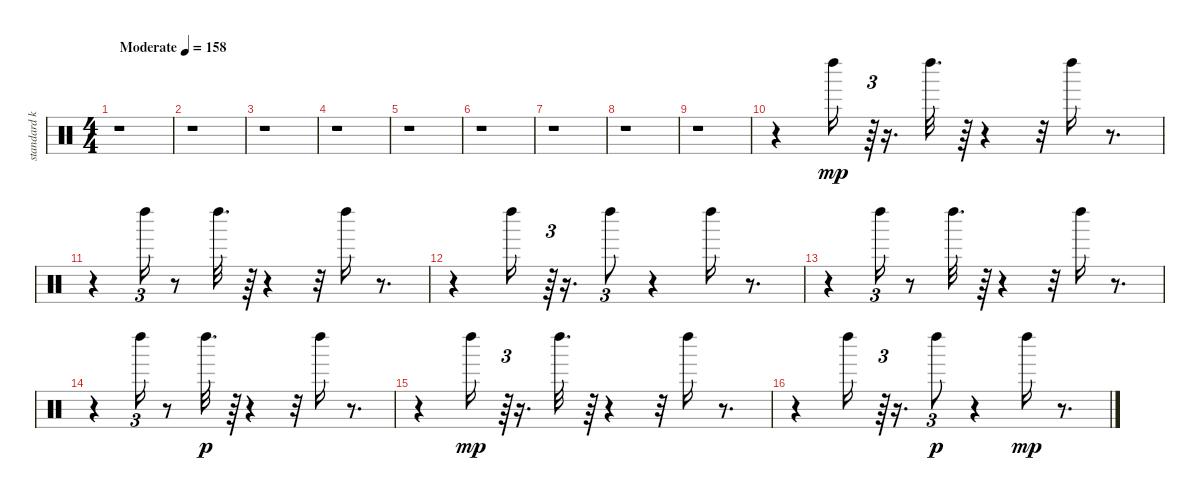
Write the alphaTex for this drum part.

\track ("standard kit" "standard k") {instrument percussion}
\staff {score}
\articulation defaults
\ts (4 4)
\tempo (158 "Moderate")
\clef neutral
\ks c
r.1{dy mp} |
r.1 |
r.1 |
r.1 |
r.1 |
r.1 |
r.1 |
r.1 |
r.1 |
r.4 "Left Maraca (hit)".16{balance 8} r.64{tu (3 2)} r.16{d} "Left Maraca (hit)".32{d} r.64 r.4 r.32 "Left Maraca (hit)".16 r.8{d} |
r.4 "Left Maraca (hit)".16{tu (3 2)} r.8 "Left Maraca (hit)".32{d} r.64 r.4 r.32 "Left Maraca (hit)".16 r.8{d} |
r.4 "Left Maraca (hit)".16 r.64{tu (3 2)} r.16{d} "Left Maraca (hit)".8{tu (3 2)} r.4 "Left Maraca (hit)".16 r.8{d} |
r.4 "Left Maraca (hit)".16{tu (3 2)} r.8 "Left Maraca (hit)".32{d} r.64 r.4 r.32 "Left Maraca (hit)".16 r.8{d} |
r.4 "Left Maraca (hit)".16{tu (3 2)} r.8 "Left Maraca (hit)".32{d dy p} r.64 r.4 r.32 "Left Maraca (hit)".16 r.8{d} |
r.4 "Left Maraca (hit)".16{dy mp} r.64{tu (3 2)} r.16{d} "Left Maraca (hit)".32{d} r.64 r.4 r.32 "Left Maraca (hit)".16 r.8{d} |
r.4 "Left Maraca (hit)".16 r.64{tu (3 2)} r.16{d} "Left Maraca (hit)".8{tu (3 2) dy p} r.4 "Left Maraca (hit)".16{dy mp} r.8{d}
